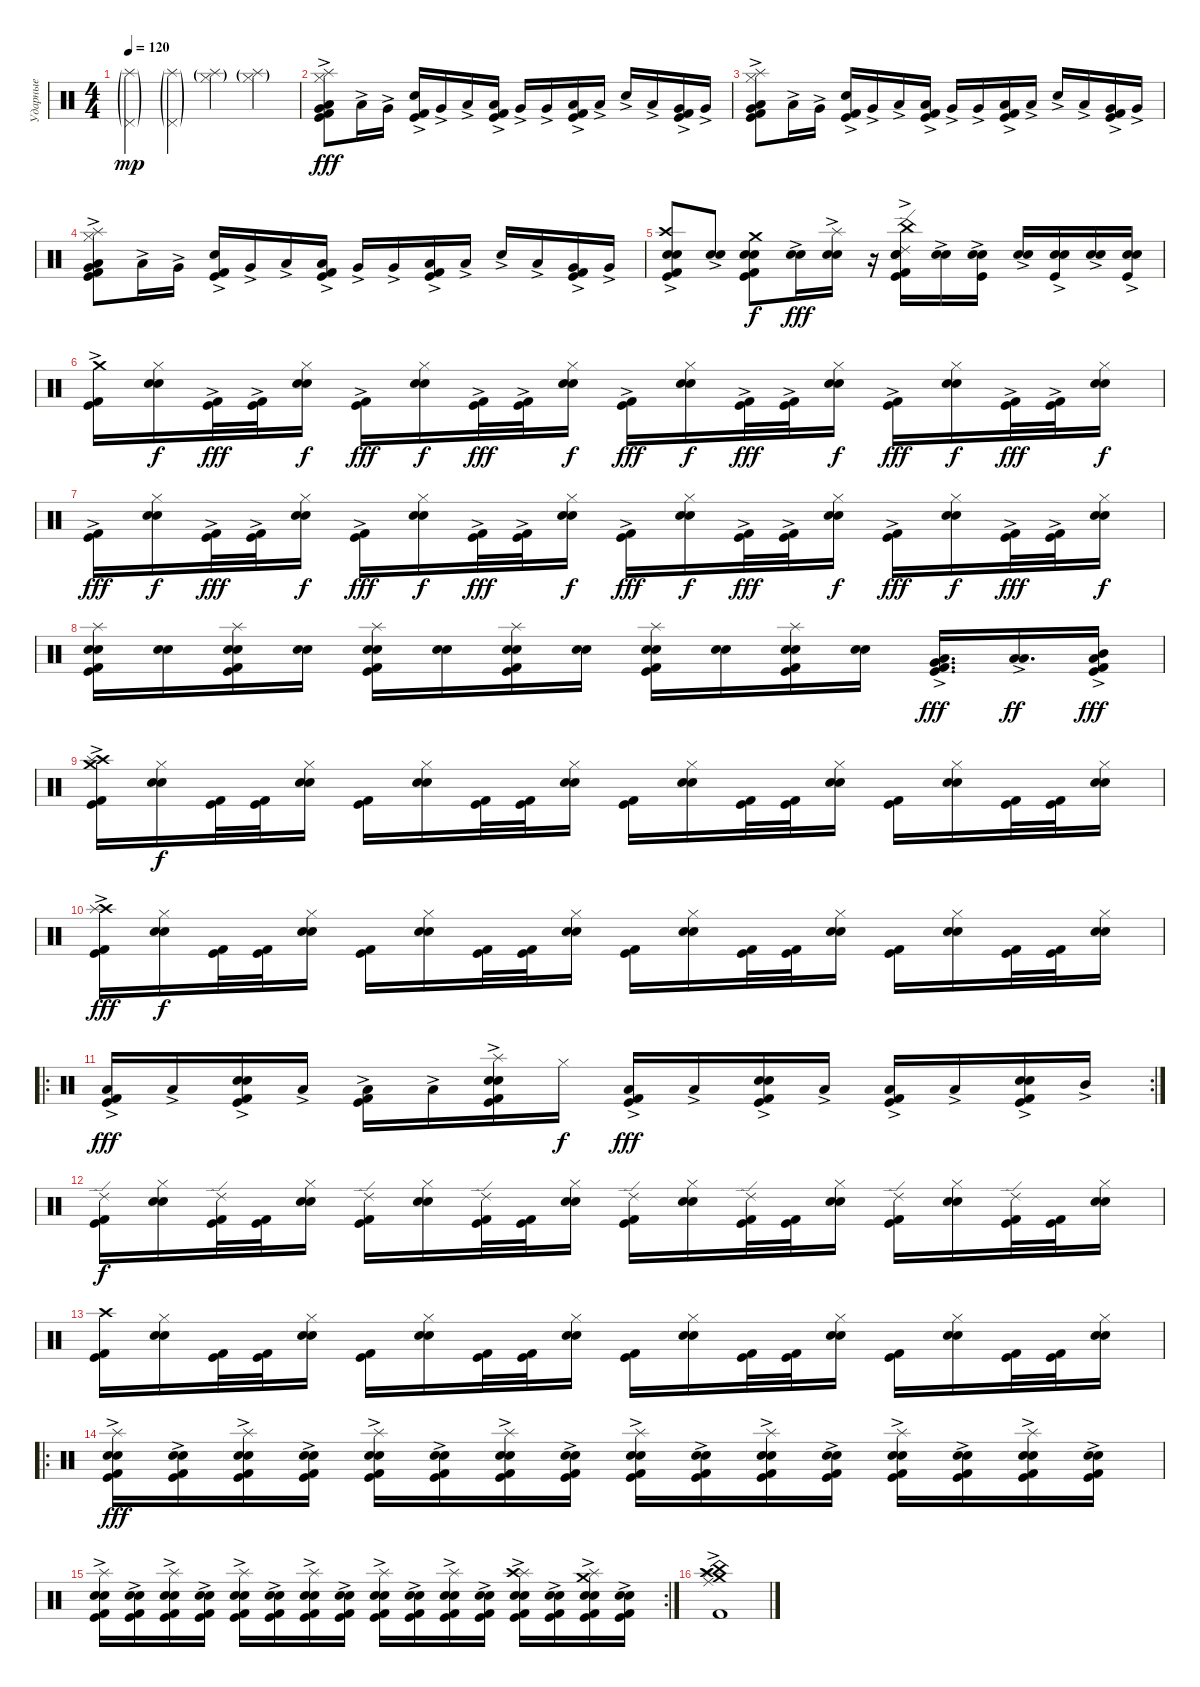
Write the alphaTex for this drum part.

\track ("Ударные" "Ударные") {instrument percussion}
\staff {score}
\articulation defaults
\ts (4 4)
\tempo 120
\clef neutral
\ks c
("Splash (hit)"{g} "Pedal Hi-Hat (hit)"{g}).4{dy mp} ("Splash (hit)"{g} "Pedal Hi-Hat (hit)"{g}).4 ("Splash (hit)"{g} "Hi-Hat (closed)"{g}).4 ("Splash (hit)"{g} "Hi-Hat (closed)"{g}).4 |
("Hi-Hat (closed)" "Splash (hit)" "Very Low Tom (hit)" "Low Tom (hit)" "Kick (hit)"{ac} "Kick (hit) 2"{ac}).8{dy fff} "Low Tom (hit)"{ac}.16 "Very Low Tom (hit)"{ac}.16 ("Electric Snare (hit)"{ac} "Kick (hit)"{ac} "Kick (hit) 2"{ac}).16 "Very Low Tom (hit)"{ac}.16 "Low Tom (hit)"{ac}.16 ("Low Tom (hit)"{ac} "Kick (hit)"{ac} "Kick (hit) 2"{ac}).16 "Very Low Tom (hit)"{ac}.16 "Very Low Tom (hit)"{ac}.16 ("Low Tom (hit)"{ac} "Kick (hit)"{ac} "Kick (hit) 2"{ac}).16 "Low Tom (hit)"{ac}.16 "Electric Snare (hit)"{ac}.16 "Low Tom (hit)"{ac}.16 ("Very Low Tom (hit)"{ac} "Kick (hit)"{ac} "Kick (hit) 2"{ac}).16 "Very Low Tom (hit)"{ac}.16 |
("Hi-Hat (closed)" "Splash (hit)" "Very Low Tom (hit)" "Low Tom (hit)" "Kick (hit)"{ac} "Kick (hit) 2"{ac}).8 "Low Tom (hit)"{ac}.16 "Very Low Tom (hit)"{ac}.16 ("Electric Snare (hit)"{ac} "Kick (hit)"{ac} "Kick (hit) 2"{ac}).16 "Very Low Tom (hit)"{ac}.16 "Low Tom (hit)"{ac}.16 ("Low Tom (hit)"{ac} "Kick (hit)"{ac} "Kick (hit) 2"{ac}).16 "Very Low Tom (hit)"{ac}.16 "Very Low Tom (hit)"{ac}.16 ("Low Tom (hit)"{ac} "Kick (hit)"{ac} "Kick (hit) 2"{ac}).16 "Low Tom (hit)"{ac}.16 "Electric Snare (hit)"{ac}.16 "Low Tom (hit)"{ac}.16 ("Very Low Tom (hit)"{ac} "Kick (hit)"{ac} "Kick (hit) 2"{ac}).16 "Very Low Tom (hit)"{ac}.16 |
("Hi-Hat (closed)" "Splash (hit)" "Very Low Tom (hit)" "Low Tom (hit)" "Kick (hit)"{ac} "Kick (hit) 2"{ac}).8 "Low Tom (hit)"{ac}.16 "Very Low Tom (hit)"{ac}.16 ("Electric Snare (hit)"{ac} "Kick (hit)"{ac} "Kick (hit) 2"{ac}).16 "Very Low Tom (hit)"{ac}.16 "Low Tom (hit)"{ac}.16 ("Low Tom (hit)"{ac} "Kick (hit)"{ac} "Kick (hit) 2"{ac}).16 "Very Low Tom (hit)"{ac}.16 "Very Low Tom (hit)"{ac}.16 ("Low Tom (hit)"{ac} "Kick (hit)"{ac} "Kick (hit) 2"{ac}).16 "Low Tom (hit)"{ac}.16 "Electric Snare (hit)"{ac}.16 "Low Tom (hit)"{ac}.16 ("Very Low Tom (hit)"{ac} "Kick (hit)"{ac} "Kick (hit) 2"{ac}).16 "Very Low Tom (hit)"{ac}.16 |
("Crash high (hit)"{ac} "Electric Snare (hit)" "Snare (hit) 2" "Kick (hit)" "Kick (hit) 2").8 ("Electric Snare (hit)"{ac} "Snare (hit) 2"{ac}).8 ("Crash medium (hit)" "Electric Snare (hit)" "Snare (hit) 2" "Kick (hit)" "Kick (hit) 2").8{dy f} ("Electric Snare (hit)"{ac} "Snare (hit) 2"{ac}).16{dy fff} ("Splash (hit)" "Electric Snare (hit)"{ac} "Snare (hit) 2").16 r.16 ("Ride (edge) 2" "Electric Snare (hit)" "Snare (hit) 2" "China (hit)" "Kick (hit)"{ac} "Kick (hit) 2"{ac}).16 ("Electric Snare (hit)"{ac} "Snare (hit) 2").16 ("Electric Snare (hit)" "Snare (hit) 2"{ac} "Kick (hit)"{ac}).16 ("Electric Snare (hit)"{ac} "Snare (hit) 2").16 ("Electric Snare (hit)" "Snare (hit) 2"{ac} "Kick (hit)"{ac}).16 ("Electric Snare (hit)"{ac} "Snare (hit) 2").16 ("Electric Snare (hit)" "Snare (hit) 2"{ac} "Kick (hit)"{ac}).16 |
("Crash medium (hit)" "Kick (hit)"{ac} "Kick (hit) 2"{ac}).16 ("Hi-Hat (closed)" "Snare (hit) 2" "Electric Snare (hit)").16{dy f} ("Kick (hit)"{ac} "Kick (hit) 2"{ac}).32{dy fff} ("Kick (hit)"{ac} "Kick (hit) 2"{ac}).32 ("Hi-Hat (closed)" "Snare (hit) 2" "Electric Snare (hit)").16{dy f} ("Kick (hit)"{ac} "Kick (hit) 2"{ac}).16{dy fff} ("Hi-Hat (closed)" "Snare (hit) 2" "Electric Snare (hit)").16{dy f} ("Kick (hit)"{ac} "Kick (hit) 2"{ac}).32{dy fff} ("Kick (hit)"{ac} "Kick (hit) 2"{ac}).32 ("Hi-Hat (closed)" "Snare (hit) 2" "Electric Snare (hit)").16{dy f} ("Kick (hit)"{ac} "Kick (hit) 2"{ac}).16{dy fff} ("Hi-Hat (closed)" "Snare (hit) 2" "Electric Snare (hit)").16{dy f} ("Kick (hit)"{ac} "Kick (hit) 2"{ac}).32{dy fff} ("Kick (hit)"{ac} "Kick (hit) 2"{ac}).32 ("Hi-Hat (closed)" "Snare (hit) 2" "Electric Snare (hit)").16{dy f} ("Kick (hit)"{ac} "Kick (hit) 2"{ac}).16{dy fff} ("Hi-Hat (closed)" "Snare (hit) 2" "Electric Snare (hit)").16{dy f} ("Kick (hit)"{ac} "Kick (hit) 2"{ac}).32{dy fff} ("Kick (hit)"{ac} "Kick (hit) 2"{ac}).32 ("Hi-Hat (closed)" "Snare (hit) 2" "Electric Snare (hit)").16{dy f} |
("Kick (hit)"{ac} "Kick (hit) 2"{ac}).16{dy fff} ("Hi-Hat (closed)" "Snare (hit) 2" "Electric Snare (hit)").16{dy f} ("Kick (hit)"{ac} "Kick (hit) 2"{ac}).32{dy fff} ("Kick (hit)"{ac} "Kick (hit) 2"{ac}).32 ("Hi-Hat (closed)" "Snare (hit) 2" "Electric Snare (hit)").16{dy f} ("Kick (hit)"{ac} "Kick (hit) 2"{ac}).16{dy fff} ("Hi-Hat (closed)" "Snare (hit) 2" "Electric Snare (hit)").16{dy f} ("Kick (hit)"{ac} "Kick (hit) 2"{ac}).32{dy fff} ("Kick (hit)"{ac} "Kick (hit) 2"{ac}).32 ("Hi-Hat (closed)" "Snare (hit) 2" "Electric Snare (hit)").16{dy f} ("Kick (hit)"{ac} "Kick (hit) 2"{ac}).16{dy fff} ("Hi-Hat (closed)" "Snare (hit) 2" "Electric Snare (hit)").16{dy f} ("Kick (hit)"{ac} "Kick (hit) 2"{ac}).32{dy fff} ("Kick (hit)"{ac} "Kick (hit) 2"{ac}).32 ("Hi-Hat (closed)" "Snare (hit) 2" "Electric Snare (hit)").16{dy f} ("Kick (hit)"{ac} "Kick (hit) 2"{ac}).16{dy fff} ("Hi-Hat (closed)" "Snare (hit) 2" "Electric Snare (hit)").16{dy f} ("Kick (hit)"{ac} "Kick (hit) 2"{ac}).32{dy fff} ("Kick (hit)"{ac} "Kick (hit) 2"{ac}).32 ("Hi-Hat (closed)" "Snare (hit) 2" "Electric Snare (hit)").16{dy f} |
("Splash (hit)" "Snare (hit) 2" "Electric Snare (hit)" "Kick (hit)" "Kick (hit) 2").16 ("Snare (hit) 2" "Electric Snare (hit)").16 ("Splash (hit)" "Snare (hit) 2" "Electric Snare (hit)" "Kick (hit)" "Kick (hit) 2").16 ("Snare (hit) 2" "Electric Snare (hit)").16 ("Splash (hit)" "Snare (hit) 2" "Electric Snare (hit)" "Kick (hit)" "Kick (hit) 2").16 ("Snare (hit) 2" "Electric Snare (hit)").16 ("Splash (hit)" "Snare (hit) 2" "Electric Snare (hit)" "Kick (hit)" "Kick (hit) 2").16 ("Snare (hit) 2" "Electric Snare (hit)").16 ("Splash (hit)" "Snare (hit) 2" "Electric Snare (hit)" "Kick (hit)" "Kick (hit) 2").16 ("Snare (hit) 2" "Electric Snare (hit)").16 ("Splash (hit)" "Snare (hit) 2" "Electric Snare (hit)" "Kick (hit)" "Kick (hit) 2").16 ("Snare (hit) 2" "Electric Snare (hit)").16 ("Very Low Tom (hit)"{ac} "Low Floor Tom (hit)"{ac} "Kick (hit)"{ac} "Kick (hit) 2"{ac}).16{d dy fff} ("Low Tom (hit)"{ac} "Low Floor Tom (hit)"{ac}).16{d dy ff} ("Mid Tom (hit)"{ac} "Low Floor Tom (hit)"{ac} "Kick (hit)"{ac} "Kick (hit) 2"{ac}).16{dy fff} |
("Crash medium (hit)"{ac} "Crash high (hit)" "Splash (hit)"{ac} "Kick (hit)" "Kick (hit) 2").16 ("Hi-Hat (closed)" "Snare (hit) 2" "Electric Snare (hit)").16{dy f} ("Kick (hit)" "Kick (hit) 2").32 ("Kick (hit)" "Kick (hit) 2").32 ("Hi-Hat (closed)" "Snare (hit) 2" "Electric Snare (hit)").16 ("Kick (hit)" "Kick (hit) 2").16 ("Hi-Hat (closed)" "Snare (hit) 2" "Electric Snare (hit)").16 ("Kick (hit)" "Kick (hit) 2").32 ("Kick (hit)" "Kick (hit) 2").32 ("Hi-Hat (closed)" "Snare (hit) 2" "Electric Snare (hit)").16 ("Kick (hit)" "Kick (hit) 2").16 ("Hi-Hat (closed)" "Snare (hit) 2" "Electric Snare (hit)").16 ("Kick (hit)" "Kick (hit) 2").32 ("Kick (hit)" "Kick (hit) 2").32 ("Hi-Hat (closed)" "Snare (hit) 2" "Electric Snare (hit)").16 ("Kick (hit)" "Kick (hit) 2").16 ("Hi-Hat (closed)" "Snare (hit) 2" "Electric Snare (hit)").16 ("Kick (hit)" "Kick (hit) 2").32 ("Kick (hit)" "Kick (hit) 2").32 ("Hi-Hat (closed)" "Snare (hit) 2" "Electric Snare (hit)").16 |
("Crash high (hit)"{ac} "Splash (hit)" "Kick (hit)" "Kick (hit) 2").16{dy fff} ("Hi-Hat (closed)" "Snare (hit) 2" "Electric Snare (hit)").16{dy f} ("Kick (hit)" "Kick (hit) 2").32 ("Kick (hit)" "Kick (hit) 2").32 ("Hi-Hat (closed)" "Snare (hit) 2" "Electric Snare (hit)").16 ("Kick (hit)" "Kick (hit) 2").16 ("Hi-Hat (closed)" "Snare (hit) 2" "Electric Snare (hit)").16 ("Kick (hit)" "Kick (hit) 2").32 ("Kick (hit)" "Kick (hit) 2").32 ("Hi-Hat (closed)" "Snare (hit) 2" "Electric Snare (hit)").16 ("Kick (hit)" "Kick (hit) 2").16 ("Hi-Hat (closed)" "Snare (hit) 2" "Electric Snare (hit)").16 ("Kick (hit)" "Kick (hit) 2").32 ("Kick (hit)" "Kick (hit) 2").32 ("Hi-Hat (closed)" "Snare (hit) 2" "Electric Snare (hit)").16 ("Kick (hit)" "Kick (hit) 2").16 ("Hi-Hat (closed)" "Snare (hit) 2" "Electric Snare (hit)").16 ("Kick (hit)" "Kick (hit) 2").32 ("Kick (hit)" "Kick (hit) 2").32 ("Hi-Hat (closed)" "Snare (hit) 2" "Electric Snare (hit)").16 |
\ro
\rc 2
("Low Floor Tom (hit)"{ac} "Kick (hit)"{ac} "Kick (hit) 2"{ac}).16{dy fff} "Low Floor Tom (hit)"{ac}.16 ("Electric Snare (hit)" "Snare (hit) 2" "Kick (hit)"{ac} "Kick (hit) 2"{ac}).16 "Low Floor Tom (hit)"{ac}.16 ("Low Tom (hit)"{ac} "Kick (hit)"{ac} "Kick (hit) 2"{ac}).16 "Low Tom (hit)"{ac}.16 ("Splash (hit)" "Electric Snare (hit)" "Snare (hit) 2" "Kick (hit)"{ac} "Kick (hit) 2"{ac}).16 "Hi-Hat (closed)".16{dy f} ("Low Floor Tom (hit)"{ac} "Kick (hit)"{ac} "Kick (hit) 2"{ac}).16{dy fff} "Low Floor Tom (hit)"{ac}.16 ("Electric Snare (hit)" "Snare (hit) 2" "Kick (hit)"{ac} "Kick (hit) 2"{ac}).16 "Low Floor Tom (hit)"{ac}.16 ("Low Tom (hit)"{ac} "Kick (hit)"{ac} "Kick (hit) 2"{ac}).16 "Low Tom (hit)"{ac}.16 ("Electric Snare (hit)" "Snare (hit) 2" "Kick (hit)"{ac} "Kick (hit) 2"{ac}).16 "Mid Tom (hit)"{ac}.16 |
("Ride (edge) 2" "Kick (hit)" "Kick (hit) 2").16{dy f} ("Hi-Hat (closed)" "Snare (hit) 2" "Electric Snare (hit)").16 ("Ride (edge) 2" "Kick (hit)" "Kick (hit) 2").32 ("Kick (hit)" "Kick (hit) 2").32 ("Hi-Hat (closed)" "Snare (hit) 2" "Electric Snare (hit)").16 ("Ride (edge) 2" "Kick (hit)" "Kick (hit) 2").16 ("Hi-Hat (closed)" "Snare (hit) 2" "Electric Snare (hit)").16 ("Ride (edge) 2" "Kick (hit)" "Kick (hit) 2").32 ("Kick (hit)" "Kick (hit) 2").32 ("Hi-Hat (closed)" "Snare (hit) 2" "Electric Snare (hit)").16 ("Ride (edge) 2" "Kick (hit)" "Kick (hit) 2").16 ("Hi-Hat (closed)" "Snare (hit) 2" "Electric Snare (hit)").16 ("Ride (edge) 2" "Kick (hit)" "Kick (hit) 2").32 ("Kick (hit)" "Kick (hit) 2").32 ("Hi-Hat (closed)" "Snare (hit) 2" "Electric Snare (hit)").16 ("Ride (edge) 2" "Kick (hit)" "Kick (hit) 2").16 ("Hi-Hat (closed)" "Snare (hit) 2" "Electric Snare (hit)").16 ("Ride (edge) 2" "Kick (hit)" "Kick (hit) 2").32 ("Kick (hit)" "Kick (hit) 2").32 ("Hi-Hat (closed)" "Snare (hit) 2" "Electric Snare (hit)").16 |
("Crash high (hit)" "Kick (hit)" "Kick (hit) 2").16 ("Hi-Hat (closed)" "Snare (hit) 2" "Electric Snare (hit)").16 ("Kick (hit)" "Kick (hit) 2").32 ("Kick (hit)" "Kick (hit) 2").32 ("Hi-Hat (closed)" "Snare (hit) 2" "Electric Snare (hit)").16 ("Kick (hit)" "Kick (hit) 2").16 ("Hi-Hat (closed)" "Snare (hit) 2" "Electric Snare (hit)").16 ("Kick (hit)" "Kick (hit) 2").32 ("Kick (hit)" "Kick (hit) 2").32 ("Hi-Hat (closed)" "Snare (hit) 2" "Electric Snare (hit)").16 ("Kick (hit)" "Kick (hit) 2").16 ("Hi-Hat (closed)" "Snare (hit) 2" "Electric Snare (hit)").16 ("Kick (hit)" "Kick (hit) 2").32 ("Kick (hit)" "Kick (hit) 2").32 ("Hi-Hat (closed)" "Snare (hit) 2" "Electric Snare (hit)").16 ("Kick (hit)" "Kick (hit) 2").16 ("Hi-Hat (closed)" "Snare (hit) 2" "Electric Snare (hit)").16 ("Kick (hit)" "Kick (hit) 2").32 ("Kick (hit)" "Kick (hit) 2").32 ("Hi-Hat (closed)" "Snare (hit) 2" "Electric Snare (hit)").16 |
\ro
("Splash (hit)"{ac} "Snare (hit) 2" "Electric Snare (hit)"{ac} "Kick (hit)"{ac} "Kick (hit) 2"{ac}).16{dy fff} ("Snare (hit) 2" "Electric Snare (hit)" "Kick (hit)"{ac} "Kick (hit) 2"{ac}).16 ("Splash (hit)"{ac} "Snare (hit) 2" "Electric Snare (hit)"{ac} "Kick (hit)"{ac} "Kick (hit) 2"{ac}).16 ("Snare (hit) 2" "Electric Snare (hit)" "Kick (hit)"{ac} "Kick (hit) 2"{ac}).16 ("Splash (hit)"{ac} "Snare (hit) 2" "Electric Snare (hit)"{ac} "Kick (hit)"{ac} "Kick (hit) 2"{ac}).16 ("Snare (hit) 2" "Electric Snare (hit)" "Kick (hit)"{ac} "Kick (hit) 2"{ac}).16 ("Splash (hit)"{ac} "Snare (hit) 2" "Electric Snare (hit)"{ac} "Kick (hit)"{ac} "Kick (hit) 2"{ac}).16 ("Snare (hit) 2" "Electric Snare (hit)" "Kick (hit)"{ac} "Kick (hit) 2"{ac}).16 ("Splash (hit)"{ac} "Snare (hit) 2" "Electric Snare (hit)"{ac} "Kick (hit)"{ac} "Kick (hit) 2"{ac}).16 ("Snare (hit) 2" "Electric Snare (hit)" "Kick (hit)"{ac} "Kick (hit) 2"{ac}).16 ("Splash (hit)"{ac} "Snare (hit) 2" "Electric Snare (hit)"{ac} "Kick (hit)"{ac} "Kick (hit) 2"{ac}).16 ("Snare (hit) 2" "Electric Snare (hit)" "Kick (hit)"{ac} "Kick (hit) 2"{ac}).16 ("Splash (hit)"{ac} "Snare (hit) 2" "Electric Snare (hit)"{ac} "Kick (hit)"{ac} "Kick (hit) 2"{ac}).16 ("Snare (hit) 2" "Electric Snare (hit)" "Kick (hit)"{ac} "Kick (hit) 2"{ac}).16 ("Splash (hit)"{ac} "Snare (hit) 2" "Electric Snare (hit)"{ac} "Kick (hit)"{ac} "Kick (hit) 2"{ac}).16 ("Snare (hit) 2" "Electric Snare (hit)" "Kick (hit)"{ac} "Kick (hit) 2"{ac}).16 |
\rc 2
("Splash (hit)"{ac} "Snare (hit) 2" "Electric Snare (hit)"{ac} "Kick (hit)"{ac} "Kick (hit) 2"{ac}).16 ("Snare (hit) 2" "Electric Snare (hit)" "Kick (hit)"{ac} "Kick (hit) 2"{ac}).16 ("Splash (hit)"{ac} "Snare (hit) 2" "Electric Snare (hit)"{ac} "Kick (hit)"{ac} "Kick (hit) 2"{ac}).16 ("Snare (hit) 2" "Electric Snare (hit)" "Kick (hit)"{ac} "Kick (hit) 2"{ac}).16 ("Splash (hit)"{ac} "Snare (hit) 2" "Electric Snare (hit)"{ac} "Kick (hit)"{ac} "Kick (hit) 2"{ac}).16 ("Snare (hit) 2" "Electric Snare (hit)" "Kick (hit)"{ac} "Kick (hit) 2"{ac}).16 ("Splash (hit)"{ac} "Snare (hit) 2" "Electric Snare (hit)"{ac} "Kick (hit)"{ac} "Kick (hit) 2"{ac}).16 ("Snare (hit) 2" "Electric Snare (hit)" "Kick (hit)"{ac} "Kick (hit) 2"{ac}).16 ("Splash (hit)"{ac} "Snare (hit) 2" "Electric Snare (hit)"{ac} "Kick (hit)"{ac} "Kick (hit) 2"{ac}).16 ("Snare (hit) 2" "Electric Snare (hit)" "Kick (hit)"{ac} "Kick (hit) 2"{ac}).16 ("Splash (hit)"{ac} "Snare (hit) 2" "Electric Snare (hit)"{ac} "Kick (hit)"{ac} "Kick (hit) 2"{ac}).16 ("Snare (hit) 2" "Electric Snare (hit)" "Kick (hit)"{ac} "Kick (hit) 2"{ac}).16 ("Splash (hit)"{ac} "Snare (hit) 2" "Electric Snare (hit)"{ac} "Crash high (hit)"{ac} "Kick (hit)"{ac} "Kick (hit) 2"{ac}).16 ("Snare (hit) 2" "Electric Snare (hit)" "Kick (hit)"{ac} "Kick (hit) 2"{ac}).16 ("Splash (hit)"{ac} "Snare (hit) 2" "Electric Snare (hit)"{ac} "Crash medium (hit)"{ac} "Kick (hit)"{ac} "Kick (hit) 2"{ac}).16 ("Snare (hit) 2" "Electric Snare (hit)" "Kick (hit)"{ac} "Kick (hit) 2"{ac}).16 |
("Crash medium (hit)" "China (hit)" "Ride (middle)" "Splash (hit)" "Crash high (hit)" "Kick (hit) 2"{ac}).1
